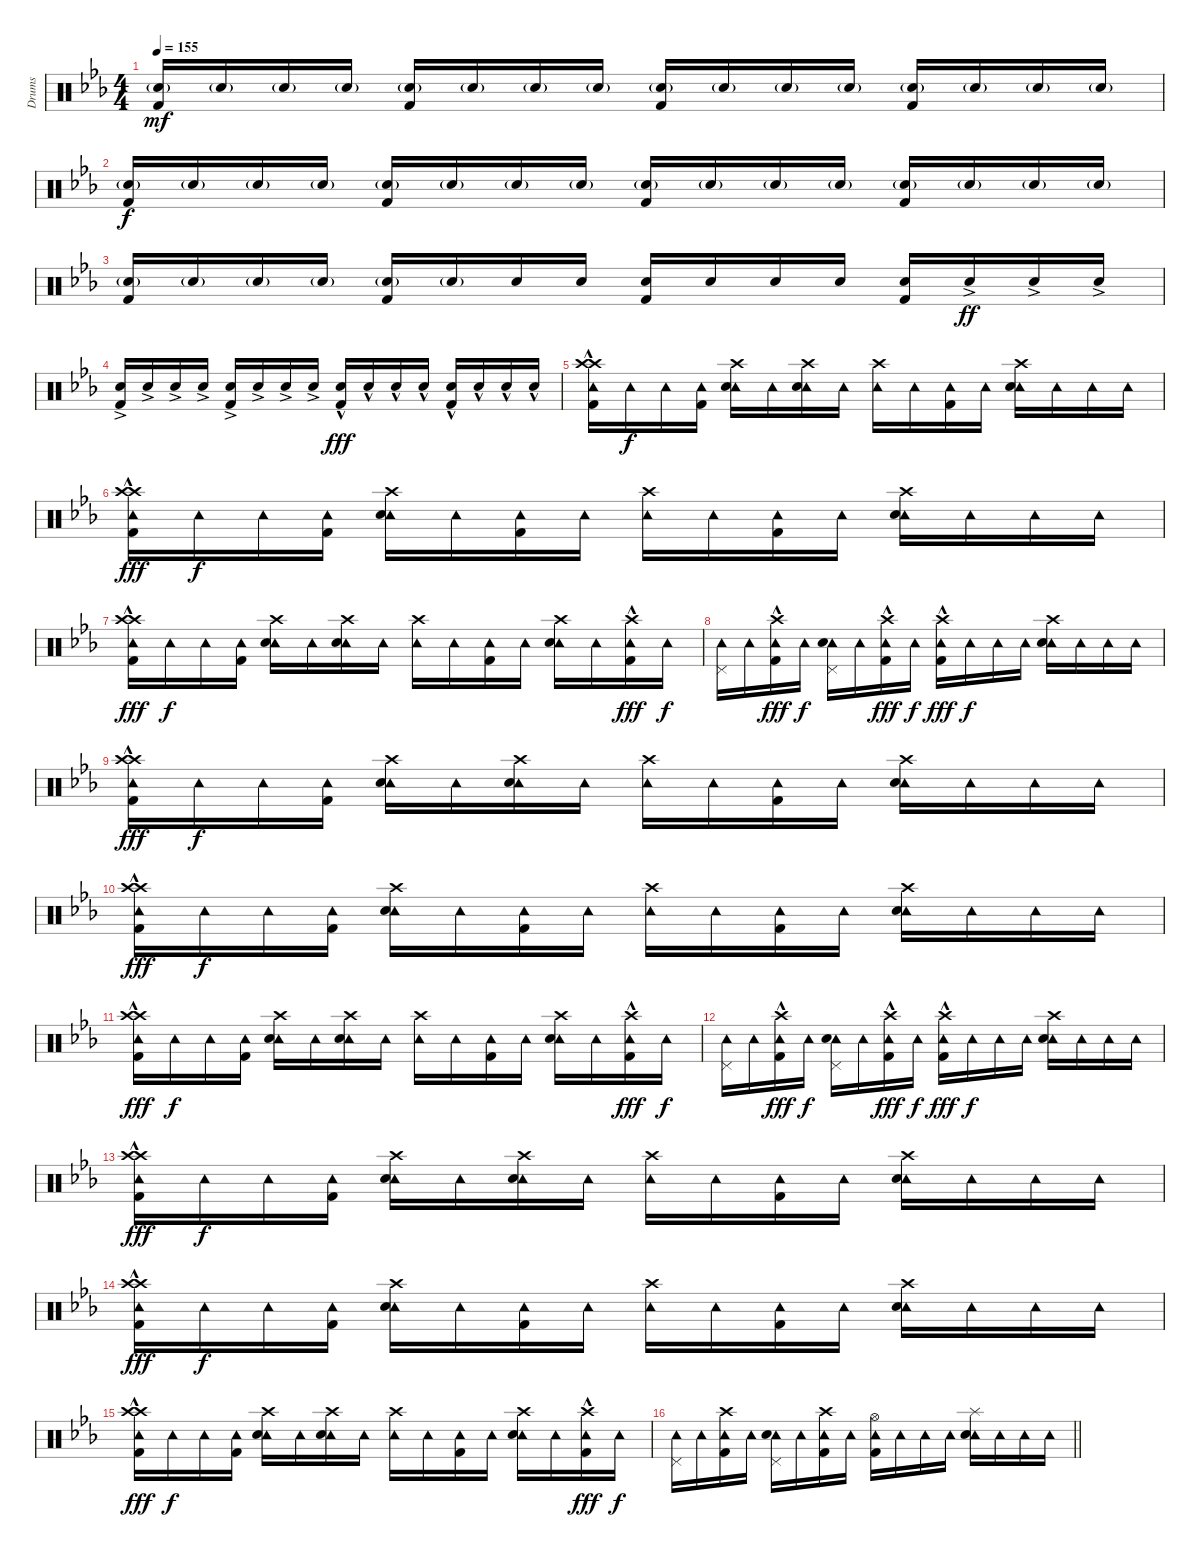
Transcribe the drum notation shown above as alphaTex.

\track ("Drums" "Drums") {instrument percussion}
\staff {score}
\articulation defaults
\ts (4 4)
\tempo 155
\clef neutral
\ks eb
("Snare (hit) 2"{g} "Kick (hit) 2").16{dy mf} "Snare (hit) 2"{g}.16 "Snare (hit) 2"{g}.16 "Snare (hit) 2"{g}.16 ("Snare (hit) 2"{g} "Kick (hit) 2").16 "Snare (hit) 2"{g}.16 "Snare (hit) 2"{g}.16 "Snare (hit) 2"{g}.16 ("Snare (hit) 2"{g} "Kick (hit) 2").16 "Snare (hit) 2"{g}.16 "Snare (hit) 2"{g}.16 "Snare (hit) 2"{g}.16 ("Snare (hit) 2"{g} "Kick (hit) 2").16 "Snare (hit) 2"{g}.16 "Snare (hit) 2"{g}.16 "Snare (hit) 2"{g}.16 |
("Snare (hit) 2"{g} "Kick (hit) 2").16{dy f} "Snare (hit) 2"{g}.16 "Snare (hit) 2"{g}.16 "Snare (hit) 2"{g}.16 ("Snare (hit) 2"{g} "Kick (hit) 2").16 "Snare (hit) 2"{g}.16 "Snare (hit) 2"{g}.16 "Snare (hit) 2"{g}.16 ("Snare (hit) 2"{g} "Kick (hit) 2").16 "Snare (hit) 2"{g}.16 "Snare (hit) 2"{g}.16 "Snare (hit) 2"{g}.16 ("Snare (hit) 2"{g} "Kick (hit) 2").16 "Snare (hit) 2"{g}.16 "Snare (hit) 2"{g}.16 "Snare (hit) 2"{g}.16 |
("Snare (hit) 2"{g} "Kick (hit) 2").16 "Snare (hit) 2"{g}.16 "Snare (hit) 2"{g}.16 "Snare (hit) 2"{g}.16 ("Snare (hit) 2"{g} "Kick (hit) 2").16 "Snare (hit) 2"{g}.16 "Snare (hit) 2".16 "Snare (hit) 2".16 ("Snare (hit) 2" "Kick (hit) 2").16 "Snare (hit) 2".16 "Snare (hit) 2".16 "Snare (hit) 2".16 ("Snare (hit) 2" "Kick (hit) 2").16 "Snare (hit) 2"{ac}.16{dy ff} "Snare (hit) 2"{ac}.16 "Snare (hit) 2"{ac}.16 |
("Snare (hit) 2"{ac} "Kick (hit) 2").16 "Snare (hit) 2"{ac}.16 "Snare (hit) 2"{ac}.16 "Snare (hit) 2"{ac}.16 ("Snare (hit) 2"{ac} "Kick (hit) 2").16 "Snare (hit) 2"{ac}.16 "Snare (hit) 2"{ac}.16 "Snare (hit) 2"{ac}.16 ("Snare (hit) 2"{hac} "Kick (hit) 2").16{dy fff} "Snare (hit) 2"{hac}.16 "Snare (hit) 2"{hac}.16 "Snare (hit) 2"{hac}.16 ("Snare (hit) 2"{hac} "Kick (hit) 2").16 "Snare (hit) 2"{hac}.16 "Snare (hit) 2"{hac}.16 "Snare (hit) 2"{hac}.16 |
("Tambourine (hit)" "Crash high (hit)"{hac} "Crash high (hit)" "Kick (hit) 2").16 "Tambourine (hit)".16{dy f} "Tambourine (hit)".16 ("Tambourine (hit)" "Kick (hit) 2").16 ("Tambourine (hit)" "Crash high (hit)" "Snare (hit) 2").16 "Tambourine (hit)".16 ("Tambourine (hit)" "Crash high (hit)" "Snare (hit) 2").16 "Tambourine (hit)".16 ("Tambourine (hit)" "Crash high (hit)").16 "Tambourine (hit)".16 ("Tambourine (hit)" "Kick (hit) 2").16 "Tambourine (hit)".16 ("Tambourine (hit)" "Crash high (hit)" "Snare (hit) 2").16 "Tambourine (hit)".16 "Tambourine (hit)".16 "Tambourine (hit)".16 |
("Tambourine (hit)" "Crash high (hit)"{hac} "Crash high (hit)" "Kick (hit) 2").16{dy fff} "Tambourine (hit)".16{dy f} "Tambourine (hit)".16 ("Tambourine (hit)" "Kick (hit) 2").16 ("Tambourine (hit)" "Crash high (hit)" "Snare (hit) 2").16 "Tambourine (hit)".16 ("Tambourine (hit)" "Kick (hit) 2").16 "Tambourine (hit)".16 ("Tambourine (hit)" "Crash high (hit)").16 "Tambourine (hit)".16 ("Tambourine (hit)" "Kick (hit) 2").16 "Tambourine (hit)".16 ("Tambourine (hit)" "Crash high (hit)" "Snare (hit) 2").16 "Tambourine (hit)".16 "Tambourine (hit)".16 "Tambourine (hit)".16 |
("Tambourine (hit)" "Crash high (hit)"{hac} "Crash high (hit)" "Kick (hit) 2").16{dy fff} "Tambourine (hit)".16{dy f} "Tambourine (hit)".16 ("Tambourine (hit)" "Kick (hit) 2").16 ("Tambourine (hit)" "Crash high (hit)" "Snare (hit) 2").16 "Tambourine (hit)".16 ("Tambourine (hit)" "Crash high (hit)" "Snare (hit) 2").16 "Tambourine (hit)".16 ("Tambourine (hit)" "Crash high (hit)").16 "Tambourine (hit)".16 ("Tambourine (hit)" "Kick (hit) 2").16 "Tambourine (hit)".16 ("Tambourine (hit)" "Crash high (hit)" "Snare (hit) 2").16 "Tambourine (hit)".16 ("Tambourine (hit)" "Crash high (hit)"{hac} "Kick (hit) 2").16{dy fff} "Tambourine (hit)".16{dy f} |
("Tambourine (hit)" "Pedal Hi-Hat (hit)").16 "Tambourine (hit)".16 ("Tambourine (hit)" "Crash high (hit)"{hac} "Kick (hit) 2").16{dy fff} "Tambourine (hit)".16{dy f} ("Tambourine (hit)" "Pedal Hi-Hat (hit)" "Snare (hit) 2").16 "Tambourine (hit)".16 ("Tambourine (hit)" "Crash high (hit)"{hac} "Kick (hit) 2").16{dy fff} "Tambourine (hit)".16{dy f} ("Tambourine (hit)" "Crash high (hit)"{hac} "Kick (hit) 2").16{dy fff} "Tambourine (hit)".16{dy f} "Tambourine (hit)".16 "Tambourine (hit)".16 ("Tambourine (hit)" "Crash high (hit)" "Snare (hit) 2").16 "Tambourine (hit)".16 "Tambourine (hit)".16 "Tambourine (hit)".16 |
("Tambourine (hit)" "Crash high (hit)"{hac} "Crash high (hit)" "Kick (hit) 2").16{dy fff} "Tambourine (hit)".16{dy f} "Tambourine (hit)".16 ("Tambourine (hit)" "Kick (hit) 2").16 ("Tambourine (hit)" "Crash high (hit)" "Snare (hit) 2").16 "Tambourine (hit)".16 ("Tambourine (hit)" "Crash high (hit)" "Snare (hit) 2").16 "Tambourine (hit)".16 ("Tambourine (hit)" "Crash high (hit)").16 "Tambourine (hit)".16 ("Tambourine (hit)" "Kick (hit) 2").16 "Tambourine (hit)".16 ("Tambourine (hit)" "Crash high (hit)" "Snare (hit) 2").16 "Tambourine (hit)".16 "Tambourine (hit)".16 "Tambourine (hit)".16 |
("Tambourine (hit)" "Crash high (hit)"{hac} "Crash high (hit)" "Kick (hit) 2").16{dy fff} "Tambourine (hit)".16{dy f} "Tambourine (hit)".16 ("Tambourine (hit)" "Kick (hit) 2").16 ("Tambourine (hit)" "Crash high (hit)" "Snare (hit) 2").16 "Tambourine (hit)".16 ("Tambourine (hit)" "Kick (hit) 2").16 "Tambourine (hit)".16 ("Tambourine (hit)" "Crash high (hit)").16 "Tambourine (hit)".16 ("Tambourine (hit)" "Kick (hit) 2").16 "Tambourine (hit)".16 ("Tambourine (hit)" "Crash high (hit)" "Snare (hit) 2").16 "Tambourine (hit)".16 "Tambourine (hit)".16 "Tambourine (hit)".16 |
("Tambourine (hit)" "Crash high (hit)"{hac} "Crash high (hit)" "Kick (hit) 2").16{dy fff} "Tambourine (hit)".16{dy f} "Tambourine (hit)".16 ("Tambourine (hit)" "Kick (hit) 2").16 ("Tambourine (hit)" "Crash high (hit)" "Snare (hit) 2").16 "Tambourine (hit)".16 ("Tambourine (hit)" "Crash high (hit)" "Snare (hit) 2").16 "Tambourine (hit)".16 ("Tambourine (hit)" "Crash high (hit)").16 "Tambourine (hit)".16 ("Tambourine (hit)" "Kick (hit) 2").16 "Tambourine (hit)".16 ("Tambourine (hit)" "Crash high (hit)" "Snare (hit) 2").16 "Tambourine (hit)".16 ("Tambourine (hit)" "Crash high (hit)"{hac} "Kick (hit) 2").16{dy fff} "Tambourine (hit)".16{dy f} |
("Tambourine (hit)" "Pedal Hi-Hat (hit)").16 "Tambourine (hit)".16 ("Tambourine (hit)" "Crash high (hit)"{hac} "Kick (hit) 2").16{dy fff} "Tambourine (hit)".16{dy f} ("Tambourine (hit)" "Pedal Hi-Hat (hit)" "Snare (hit) 2").16 "Tambourine (hit)".16 ("Tambourine (hit)" "Crash high (hit)"{hac} "Kick (hit) 2").16{dy fff} "Tambourine (hit)".16{dy f} ("Tambourine (hit)" "Crash high (hit)"{hac} "Kick (hit) 2").16{dy fff} "Tambourine (hit)".16{dy f} "Tambourine (hit)".16 "Tambourine (hit)".16 ("Tambourine (hit)" "Crash high (hit)" "Snare (hit) 2").16 "Tambourine (hit)".16 "Tambourine (hit)".16 "Tambourine (hit)".16 |
("Tambourine (hit)" "Crash high (hit)"{hac} "Crash high (hit)" "Kick (hit) 2").16{dy fff} "Tambourine (hit)".16{dy f} "Tambourine (hit)".16 ("Tambourine (hit)" "Kick (hit) 2").16 ("Tambourine (hit)" "Crash high (hit)" "Snare (hit) 2").16 "Tambourine (hit)".16 ("Tambourine (hit)" "Crash high (hit)" "Snare (hit) 2").16 "Tambourine (hit)".16 ("Tambourine (hit)" "Crash high (hit)").16 "Tambourine (hit)".16 ("Tambourine (hit)" "Kick (hit) 2").16 "Tambourine (hit)".16 ("Tambourine (hit)" "Crash high (hit)" "Snare (hit) 2").16 "Tambourine (hit)".16 "Tambourine (hit)".16 "Tambourine (hit)".16 |
("Tambourine (hit)" "Crash high (hit)"{hac} "Crash high (hit)" "Kick (hit) 2").16{dy fff} "Tambourine (hit)".16{dy f} "Tambourine (hit)".16 ("Tambourine (hit)" "Kick (hit) 2").16 ("Tambourine (hit)" "Crash high (hit)" "Snare (hit) 2").16 "Tambourine (hit)".16 ("Tambourine (hit)" "Kick (hit) 2").16 "Tambourine (hit)".16 ("Tambourine (hit)" "Crash high (hit)").16 "Tambourine (hit)".16 ("Tambourine (hit)" "Kick (hit) 2").16 "Tambourine (hit)".16 ("Tambourine (hit)" "Crash high (hit)" "Snare (hit) 2").16 "Tambourine (hit)".16 "Tambourine (hit)".16 "Tambourine (hit)".16 |
("Tambourine (hit)" "Crash high (hit)"{hac} "Crash high (hit)" "Kick (hit) 2").16{dy fff} "Tambourine (hit)".16{dy f} "Tambourine (hit)".16 ("Tambourine (hit)" "Kick (hit) 2").16 ("Tambourine (hit)" "Crash high (hit)" "Snare (hit) 2").16 "Tambourine (hit)".16 ("Tambourine (hit)" "Crash high (hit)" "Snare (hit) 2").16 "Tambourine (hit)".16 ("Tambourine (hit)" "Crash high (hit)").16 "Tambourine (hit)".16 ("Tambourine (hit)" "Kick (hit) 2").16 "Tambourine (hit)".16 ("Tambourine (hit)" "Crash high (hit)" "Snare (hit) 2").16 "Tambourine (hit)".16 ("Tambourine (hit)" "Crash high (hit)"{hac} "Kick (hit) 2").16{dy fff} "Tambourine (hit)".16{dy f} |
\barLineRight lightlight
("Tambourine (hit)" "Pedal Hi-Hat (hit)").16 "Tambourine (hit)".16 ("Tambourine (hit)" "Crash high (hit)" "Kick (hit) 2").16 "Tambourine (hit)".16 ("Tambourine (hit)" "Pedal Hi-Hat (hit)" "Snare (hit) 2").16 "Tambourine (hit)".16 ("Tambourine (hit)" "Crash high (hit)" "Kick (hit) 2").16 "Tambourine (hit)".16 ("Tambourine (hit)" "Hi-Hat (open)" "Kick (hit) 2").16 "Tambourine (hit)".16 "Tambourine (hit)".16 "Tambourine (hit)".16 ("Tambourine (hit)" "Splash (hit)" "Snare (hit) 2").16 "Tambourine (hit)".16 "Tambourine (hit)".16 "Tambourine (hit)".16
